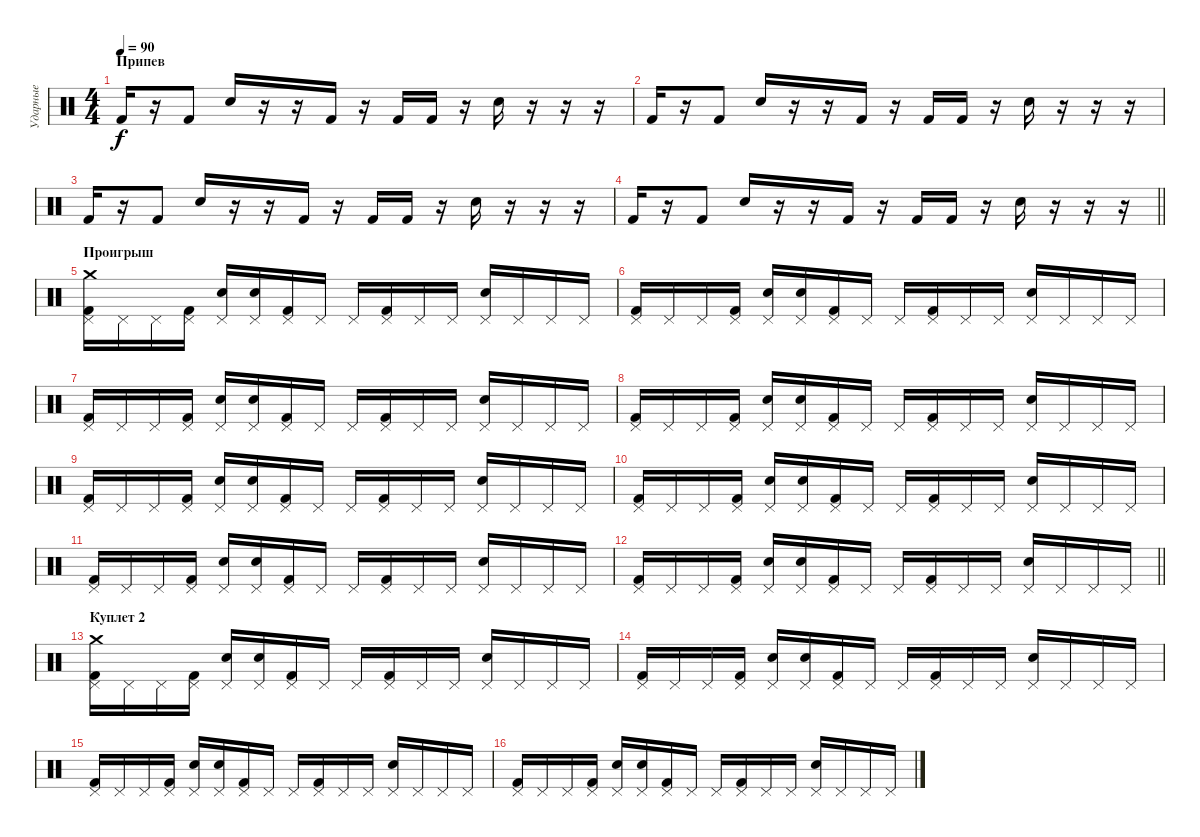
\track ("Ударные" "Ударные") {instrument percussion}
\staff {score}
\articulation defaults
\ts (4 4)
\section ("" "Припев")
\tempo 90
\clef neutral
\ks c "Kick (hit) 2".16{dy f}
r.16 "Kick (hit) 2".8 "Electric Snare (hit)".16 r.16 r.16 "Kick (hit) 2".16 r.16 "Kick (hit) 2".16 "Kick (hit) 2".16 r.16 "Electric Snare (hit)".16 r.16 r.16 r.16 |
"Kick (hit) 2".16 r.16 "Kick (hit) 2".8 "Electric Snare (hit)".16 r.16 r.16 "Kick (hit) 2".16 r.16 "Kick (hit) 2".16 "Kick (hit) 2".16 r.16 "Electric Snare (hit)".16 r.16 r.16 r.16 |
"Kick (hit) 2".16 r.16 "Kick (hit) 2".8 "Electric Snare (hit)".16 r.16 r.16 "Kick (hit) 2".16 r.16 "Kick (hit) 2".16 "Kick (hit) 2".16 r.16 "Electric Snare (hit)".16 r.16 r.16 r.16 |
\barLineRight lightlight "Kick (hit) 2".16
r.16 "Kick (hit) 2".8 "Electric Snare (hit)".16 r.16 r.16 "Kick (hit) 2".16 r.16 "Kick (hit) 2".16 "Kick (hit) 2".16 r.16 "Electric Snare (hit)".16 r.16 r.16 r.16 |
\section ("" "Проигрыш")
("Pedal Hi-Hat (hit)" "Kick (hit) 2" "Crash medium (hit)").16 "Pedal Hi-Hat (hit)".16 "Pedal Hi-Hat (hit)".16 ("Pedal Hi-Hat (hit)" "Kick (hit) 2").16 ("Pedal Hi-Hat (hit)" "Electric Snare (hit)").16 ("Pedal Hi-Hat (hit)" "Electric Snare (hit)").16 ("Pedal Hi-Hat (hit)" "Kick (hit) 2").16 "Pedal Hi-Hat (hit)".16 "Pedal Hi-Hat (hit)".16 ("Pedal Hi-Hat (hit)" "Kick (hit) 2").16 "Pedal Hi-Hat (hit)".16 "Pedal Hi-Hat (hit)".16 ("Pedal Hi-Hat (hit)" "Electric Snare (hit)").16 "Pedal Hi-Hat (hit)".16 "Pedal Hi-Hat (hit)".16 "Pedal Hi-Hat (hit)".16 |
("Pedal Hi-Hat (hit)" "Kick (hit) 2").16 "Pedal Hi-Hat (hit)".16 "Pedal Hi-Hat (hit)".16 ("Pedal Hi-Hat (hit)" "Kick (hit) 2").16 ("Pedal Hi-Hat (hit)" "Electric Snare (hit)").16 ("Pedal Hi-Hat (hit)" "Electric Snare (hit)").16 ("Pedal Hi-Hat (hit)" "Kick (hit) 2").16 "Pedal Hi-Hat (hit)".16 "Pedal Hi-Hat (hit)".16 ("Pedal Hi-Hat (hit)" "Kick (hit) 2").16 "Pedal Hi-Hat (hit)".16 "Pedal Hi-Hat (hit)".16 ("Pedal Hi-Hat (hit)" "Electric Snare (hit)").16 "Pedal Hi-Hat (hit)".16 "Pedal Hi-Hat (hit)".16 "Pedal Hi-Hat (hit)".16 |
("Pedal Hi-Hat (hit)" "Kick (hit) 2").16 "Pedal Hi-Hat (hit)".16 "Pedal Hi-Hat (hit)".16 ("Pedal Hi-Hat (hit)" "Kick (hit) 2").16 ("Pedal Hi-Hat (hit)" "Electric Snare (hit)").16 ("Pedal Hi-Hat (hit)" "Electric Snare (hit)").16 ("Pedal Hi-Hat (hit)" "Kick (hit) 2").16 "Pedal Hi-Hat (hit)".16 "Pedal Hi-Hat (hit)".16 ("Pedal Hi-Hat (hit)" "Kick (hit) 2").16 "Pedal Hi-Hat (hit)".16 "Pedal Hi-Hat (hit)".16 ("Pedal Hi-Hat (hit)" "Electric Snare (hit)").16 "Pedal Hi-Hat (hit)".16 "Pedal Hi-Hat (hit)".16 "Pedal Hi-Hat (hit)".16 |
("Pedal Hi-Hat (hit)" "Kick (hit) 2").16 "Pedal Hi-Hat (hit)".16 "Pedal Hi-Hat (hit)".16 ("Pedal Hi-Hat (hit)" "Kick (hit) 2").16 ("Pedal Hi-Hat (hit)" "Electric Snare (hit)").16 ("Pedal Hi-Hat (hit)" "Electric Snare (hit)").16 ("Pedal Hi-Hat (hit)" "Kick (hit) 2").16 "Pedal Hi-Hat (hit)".16 "Pedal Hi-Hat (hit)".16 ("Pedal Hi-Hat (hit)" "Kick (hit) 2").16 "Pedal Hi-Hat (hit)".16 "Pedal Hi-Hat (hit)".16 ("Pedal Hi-Hat (hit)" "Electric Snare (hit)").16 "Pedal Hi-Hat (hit)".16 "Pedal Hi-Hat (hit)".16 "Pedal Hi-Hat (hit)".16 |
("Pedal Hi-Hat (hit)" "Kick (hit) 2").16 "Pedal Hi-Hat (hit)".16 "Pedal Hi-Hat (hit)".16 ("Pedal Hi-Hat (hit)" "Kick (hit) 2").16 ("Pedal Hi-Hat (hit)" "Electric Snare (hit)").16 ("Pedal Hi-Hat (hit)" "Electric Snare (hit)").16 ("Pedal Hi-Hat (hit)" "Kick (hit) 2").16 "Pedal Hi-Hat (hit)".16 "Pedal Hi-Hat (hit)".16 ("Pedal Hi-Hat (hit)" "Kick (hit) 2").16 "Pedal Hi-Hat (hit)".16 "Pedal Hi-Hat (hit)".16 ("Pedal Hi-Hat (hit)" "Electric Snare (hit)").16 "Pedal Hi-Hat (hit)".16 "Pedal Hi-Hat (hit)".16 "Pedal Hi-Hat (hit)".16 |
("Pedal Hi-Hat (hit)" "Kick (hit) 2").16 "Pedal Hi-Hat (hit)".16 "Pedal Hi-Hat (hit)".16 ("Pedal Hi-Hat (hit)" "Kick (hit) 2").16 ("Pedal Hi-Hat (hit)" "Electric Snare (hit)").16 ("Pedal Hi-Hat (hit)" "Electric Snare (hit)").16 ("Pedal Hi-Hat (hit)" "Kick (hit) 2").16 "Pedal Hi-Hat (hit)".16 "Pedal Hi-Hat (hit)".16 ("Pedal Hi-Hat (hit)" "Kick (hit) 2").16 "Pedal Hi-Hat (hit)".16 "Pedal Hi-Hat (hit)".16 ("Pedal Hi-Hat (hit)" "Electric Snare (hit)").16 "Pedal Hi-Hat (hit)".16 "Pedal Hi-Hat (hit)".16 "Pedal Hi-Hat (hit)".16 |
("Pedal Hi-Hat (hit)" "Kick (hit) 2").16 "Pedal Hi-Hat (hit)".16 "Pedal Hi-Hat (hit)".16 ("Pedal Hi-Hat (hit)" "Kick (hit) 2").16 ("Pedal Hi-Hat (hit)" "Electric Snare (hit)").16 ("Pedal Hi-Hat (hit)" "Electric Snare (hit)").16 ("Pedal Hi-Hat (hit)" "Kick (hit) 2").16 "Pedal Hi-Hat (hit)".16 "Pedal Hi-Hat (hit)".16 ("Pedal Hi-Hat (hit)" "Kick (hit) 2").16 "Pedal Hi-Hat (hit)".16 "Pedal Hi-Hat (hit)".16 ("Pedal Hi-Hat (hit)" "Electric Snare (hit)").16 "Pedal Hi-Hat (hit)".16 "Pedal Hi-Hat (hit)".16 "Pedal Hi-Hat (hit)".16 |
\barLineRight lightlight
("Pedal Hi-Hat (hit)" "Kick (hit) 2").16 "Pedal Hi-Hat (hit)".16 "Pedal Hi-Hat (hit)".16 ("Pedal Hi-Hat (hit)" "Kick (hit) 2").16 ("Pedal Hi-Hat (hit)" "Electric Snare (hit)").16 ("Pedal Hi-Hat (hit)" "Electric Snare (hit)").16 ("Pedal Hi-Hat (hit)" "Kick (hit) 2").16 "Pedal Hi-Hat (hit)".16 "Pedal Hi-Hat (hit)".16 ("Pedal Hi-Hat (hit)" "Kick (hit) 2").16 "Pedal Hi-Hat (hit)".16 "Pedal Hi-Hat (hit)".16 ("Pedal Hi-Hat (hit)" "Electric Snare (hit)").16 "Pedal Hi-Hat (hit)".16 "Pedal Hi-Hat (hit)".16 "Pedal Hi-Hat (hit)".16 |
\section ("" "Куплет 2")
("Pedal Hi-Hat (hit)" "Kick (hit) 2" "Crash medium (hit)").16 "Pedal Hi-Hat (hit)".16 "Pedal Hi-Hat (hit)".16 ("Pedal Hi-Hat (hit)" "Kick (hit) 2").16 ("Pedal Hi-Hat (hit)" "Electric Snare (hit)").16 ("Pedal Hi-Hat (hit)" "Electric Snare (hit)").16 ("Pedal Hi-Hat (hit)" "Kick (hit) 2").16 "Pedal Hi-Hat (hit)".16 "Pedal Hi-Hat (hit)".16 ("Pedal Hi-Hat (hit)" "Kick (hit) 2").16 "Pedal Hi-Hat (hit)".16 "Pedal Hi-Hat (hit)".16 ("Pedal Hi-Hat (hit)" "Electric Snare (hit)").16 "Pedal Hi-Hat (hit)".16 "Pedal Hi-Hat (hit)".16 "Pedal Hi-Hat (hit)".16 |
("Pedal Hi-Hat (hit)" "Kick (hit) 2").16 "Pedal Hi-Hat (hit)".16 "Pedal Hi-Hat (hit)".16 ("Pedal Hi-Hat (hit)" "Kick (hit) 2").16 ("Pedal Hi-Hat (hit)" "Electric Snare (hit)").16 ("Pedal Hi-Hat (hit)" "Electric Snare (hit)").16 ("Pedal Hi-Hat (hit)" "Kick (hit) 2").16 "Pedal Hi-Hat (hit)".16 "Pedal Hi-Hat (hit)".16 ("Pedal Hi-Hat (hit)" "Kick (hit) 2").16 "Pedal Hi-Hat (hit)".16 "Pedal Hi-Hat (hit)".16 ("Pedal Hi-Hat (hit)" "Electric Snare (hit)").16 "Pedal Hi-Hat (hit)".16 "Pedal Hi-Hat (hit)".16 "Pedal Hi-Hat (hit)".16 |
("Pedal Hi-Hat (hit)" "Kick (hit) 2").16 "Pedal Hi-Hat (hit)".16 "Pedal Hi-Hat (hit)".16 ("Pedal Hi-Hat (hit)" "Kick (hit) 2").16 ("Pedal Hi-Hat (hit)" "Electric Snare (hit)").16 ("Pedal Hi-Hat (hit)" "Electric Snare (hit)").16 ("Pedal Hi-Hat (hit)" "Kick (hit) 2").16 "Pedal Hi-Hat (hit)".16 "Pedal Hi-Hat (hit)".16 ("Pedal Hi-Hat (hit)" "Kick (hit) 2").16 "Pedal Hi-Hat (hit)".16 "Pedal Hi-Hat (hit)".16 ("Pedal Hi-Hat (hit)" "Electric Snare (hit)").16 "Pedal Hi-Hat (hit)".16 "Pedal Hi-Hat (hit)".16 "Pedal Hi-Hat (hit)".16 |
("Pedal Hi-Hat (hit)" "Kick (hit) 2").16 "Pedal Hi-Hat (hit)".16 "Pedal Hi-Hat (hit)".16 ("Pedal Hi-Hat (hit)" "Kick (hit) 2").16 ("Pedal Hi-Hat (hit)" "Electric Snare (hit)").16 ("Pedal Hi-Hat (hit)" "Electric Snare (hit)").16 ("Pedal Hi-Hat (hit)" "Kick (hit) 2").16 "Pedal Hi-Hat (hit)".16 "Pedal Hi-Hat (hit)".16 ("Pedal Hi-Hat (hit)" "Kick (hit) 2").16 "Pedal Hi-Hat (hit)".16 "Pedal Hi-Hat (hit)".16 ("Pedal Hi-Hat (hit)" "Electric Snare (hit)").16 "Pedal Hi-Hat (hit)".16 "Pedal Hi-Hat (hit)".16 "Pedal Hi-Hat (hit)".16
